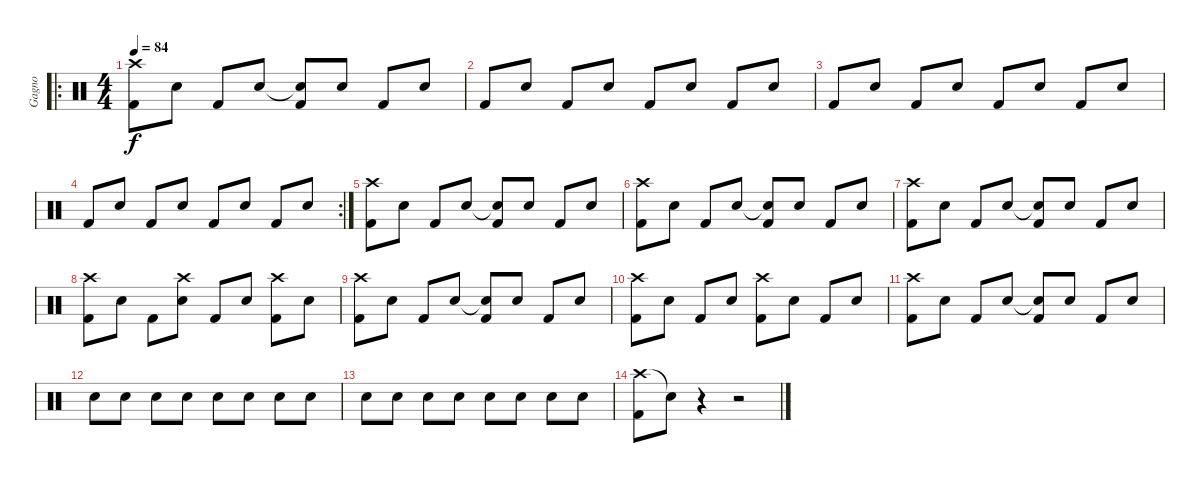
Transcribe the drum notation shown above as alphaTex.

\track ("Gagno" "Gagno") {instrument percussion}
\staff {score}
\articulation defaults
\ro
\ts (4 4)
\tempo 84
\clef neutral
\ks c
("Crash high (hit)" "Kick (hit) 2").8{dy f} "Electric Snare (hit)".8 "Kick (hit) 2".8 "Electric Snare (hit)".8 ("Snare (hit)"{t} "Kick (hit) 2").8 "Electric Snare (hit)".8 "Kick (hit) 2".8 "Electric Snare (hit)".8 |
"Kick (hit) 2".8 "Electric Snare (hit)".8 "Kick (hit) 2".8 "Electric Snare (hit)".8 "Kick (hit) 2".8 "Electric Snare (hit)".8 "Kick (hit) 2".8 "Electric Snare (hit)".8 |
"Kick (hit) 2".8 "Electric Snare (hit)".8 "Kick (hit) 2".8 "Electric Snare (hit)".8 "Kick (hit) 2".8 "Electric Snare (hit)".8 "Kick (hit) 2".8 "Electric Snare (hit)".8 |
\rc 2 "Kick (hit) 2".8 "Electric Snare (hit)".8 "Kick (hit) 2".8 "Electric Snare (hit)".8 "Kick (hit) 2".8 "Electric Snare (hit)".8 "Kick (hit) 2".8 "Electric Snare (hit)".8
|
("Crash high (hit)" "Kick (hit) 2").8 "Electric Snare (hit)".8 "Kick (hit) 2".8 "Electric Snare (hit)".8 ("Snare (hit)"{t} "Kick (hit) 2").8 "Electric Snare (hit)".8 "Kick (hit) 2".8 "Electric Snare (hit)".8 |
("Crash high (hit)" "Kick (hit) 2").8 "Electric Snare (hit)".8 "Kick (hit) 2".8 "Electric Snare (hit)".8 ("Snare (hit)"{t} "Kick (hit) 2").8 "Electric Snare (hit)".8 "Kick (hit) 2".8 "Electric Snare (hit)".8 |
("Crash high (hit)" "Kick (hit) 2").8 "Electric Snare (hit)".8 "Kick (hit) 2".8 "Electric Snare (hit)".8 ("Snare (hit)"{t} "Kick (hit) 2").8 "Electric Snare (hit)".8 "Kick (hit) 2".8 "Electric Snare (hit)".8 |
("Crash high (hit)" "Kick (hit) 2").8 "Electric Snare (hit)".8 "Kick (hit) 2".8 ("Crash high (hit)" "Electric Snare (hit)").8 "Kick (hit) 2".8 "Electric Snare (hit)".8 ("Crash high (hit)" "Kick (hit) 2").8 "Electric Snare (hit)".8 |
("Crash high (hit)" "Kick (hit) 2").8 "Electric Snare (hit)".8 "Kick (hit) 2".8 "Electric Snare (hit)".8 ("Snare (hit)"{t} "Kick (hit) 2").8 "Electric Snare (hit)".8 "Kick (hit) 2".8 "Electric Snare (hit)".8 |
("Crash high (hit)" "Kick (hit) 2").8 "Electric Snare (hit)".8 "Kick (hit) 2".8 "Electric Snare (hit)".8 ("Crash high (hit)" "Kick (hit) 2").8 "Electric Snare (hit)".8 "Kick (hit) 2".8 "Electric Snare (hit)".8 |
("Crash high (hit)" "Kick (hit) 2").8 "Electric Snare (hit)".8 "Kick (hit) 2".8 "Electric Snare (hit)".8 ("Snare (hit)"{t} "Kick (hit) 2").8 "Electric Snare (hit)".8 "Kick (hit) 2".8 "Electric Snare (hit)".8 |
"Electric Snare (hit)".8 "Electric Snare (hit)".8 "Electric Snare (hit)".8 "Electric Snare (hit)".8 "Electric Snare (hit)".8 "Electric Snare (hit)".8 "Electric Snare (hit)".8 "Electric Snare (hit)".8 |
"Electric Snare (hit)".8 "Electric Snare (hit)".8 "Electric Snare (hit)".8 "Electric Snare (hit)".8 "Electric Snare (hit)".8 "Electric Snare (hit)".8 "Electric Snare (hit)".8 "Electric Snare (hit)".8 |
("Crash high (hit)" "Kick (hit) 2").8 "Snare (hit)"{t}.8 r.4 r.2
